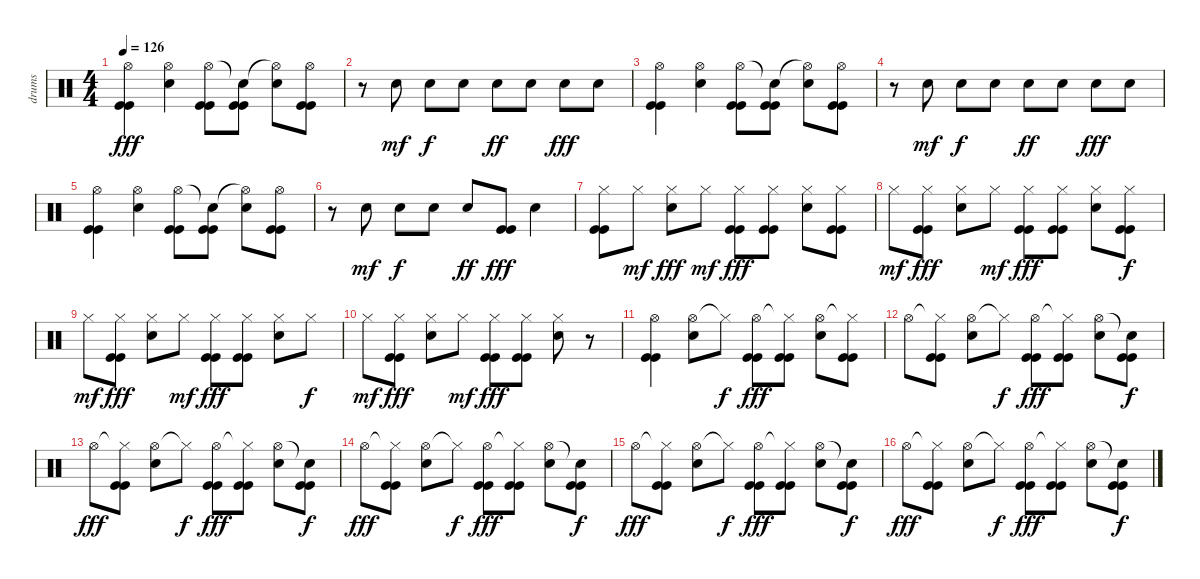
\track ("drums" "drums") {instrument percussion}
\staff {score}
\articulation defaults
\ts (4 4)
\tempo 126
\clef neutral
\ks c
("Hi-Hat (open)" "Kick (hit)" "Kick (hit)").4{dy fff} ("Hi-Hat (open)" "Electric Snare (hit)").4 ("Hi-Hat (open)" "Kick (hit)" "Kick (hit)").8 ("Snare (hit)"{t} "Kick (hit)" "Kick (hit)").8 ("Hi-Hat (open)"{t} "Electric Snare (hit)").8 ("Hi-Hat (open)" "Kick (hit)" "Kick (hit)").8 |
r.8 "Electric Snare (hit)".8{dy mf} "Electric Snare (hit)".8{dy f} "Electric Snare (hit)".8 "Electric Snare (hit)".8{dy ff} "Electric Snare (hit)".8 "Electric Snare (hit)".8{dy fff} "Electric Snare (hit)".8 |
("Hi-Hat (open)" "Kick (hit)" "Kick (hit)").4 ("Hi-Hat (open)" "Electric Snare (hit)").4 ("Hi-Hat (open)" "Kick (hit)" "Kick (hit)").8 ("Snare (hit)"{t} "Kick (hit)" "Kick (hit)").8 ("Hi-Hat (open)"{t} "Electric Snare (hit)").8 ("Hi-Hat (open)" "Kick (hit)" "Kick (hit)").8 |
r.8 "Electric Snare (hit)".8{dy mf} "Electric Snare (hit)".8{dy f} "Electric Snare (hit)".8 "Electric Snare (hit)".8{dy ff} "Electric Snare (hit)".8 "Electric Snare (hit)".8{dy fff} "Electric Snare (hit)".8 |
("Hi-Hat (open)" "Kick (hit)" "Kick (hit)").4 ("Hi-Hat (open)" "Electric Snare (hit)").4 ("Hi-Hat (open)" "Kick (hit)" "Kick (hit)").8 ("Snare (hit)"{t} "Kick (hit)" "Kick (hit)").8 ("Hi-Hat (open)"{t} "Electric Snare (hit)").8 ("Hi-Hat (open)" "Kick (hit)" "Kick (hit)").8 |
r.8 "Electric Snare (hit)".8{dy mf} "Electric Snare (hit)".8{dy f} "Electric Snare (hit)".8 "Electric Snare (hit)".8{dy ff} ("Kick (hit)" "Kick (hit)").8{dy fff} "Electric Snare (hit)".4 |
("Hi-Hat (closed)" "Kick (hit)" "Kick (hit)").8 "Hi-Hat (closed)".8{dy mf} ("Hi-Hat (closed)" "Electric Snare (hit)").8{dy fff} "Hi-Hat (closed)".8{dy mf} ("Hi-Hat (closed)" "Kick (hit)" "Kick (hit)").8{dy fff} ("Hi-Hat (closed)" "Kick (hit)" "Kick (hit)").8 ("Hi-Hat (closed)" "Electric Snare (hit)").8 ("Hi-Hat (closed)" "Kick (hit)" "Kick (hit)").8 |
"Hi-Hat (closed)".8{dy mf} ("Hi-Hat (closed)" "Kick (hit)" "Kick (hit)").8{dy fff} ("Hi-Hat (closed)" "Electric Snare (hit)").8 "Hi-Hat (closed)".8{dy mf} ("Hi-Hat (closed)" "Kick (hit)" "Kick (hit)").8{dy fff} ("Hi-Hat (closed)" "Kick (hit)" "Kick (hit)").8 ("Hi-Hat (closed)" "Electric Snare (hit)").8 ("Hi-Hat (closed)" "Kick (hit)" "Kick (hit)").8{dy f} |
"Hi-Hat (closed)".8{dy mf} ("Hi-Hat (closed)" "Kick (hit)" "Kick (hit)").8{dy fff} ("Hi-Hat (closed)" "Electric Snare (hit)").8 "Hi-Hat (closed)".8{dy mf} ("Hi-Hat (closed)" "Kick (hit)" "Kick (hit)").8{dy fff} ("Hi-Hat (closed)" "Kick (hit)" "Kick (hit)").8 ("Hi-Hat (closed)" "Electric Snare (hit)").8 "Hi-Hat (closed)".8{dy f} |
"Hi-Hat (closed)".8{dy mf} ("Hi-Hat (closed)" "Kick (hit)" "Kick (hit)").8{dy fff} ("Hi-Hat (closed)" "Electric Snare (hit)").8 "Hi-Hat (closed)".8{dy mf} ("Hi-Hat (closed)" "Kick (hit)" "Kick (hit)").8{dy fff} ("Hi-Hat (closed)" "Kick (hit)" "Kick (hit)").8 ("Hi-Hat (closed)" "Electric Snare (hit)").8 r.8 |
("Hi-Hat (open)" "Kick (hit)" "Kick (hit)").4 ("Hi-Hat (open)" "Electric Snare (hit)").8 "Hi-Hat (closed)"{t}.8{dy f} ("Hi-Hat (open)" "Kick (hit)" "Kick (hit)").8{dy fff} ("Hi-Hat (closed)"{t} "Kick (hit)" "Kick (hit)").8 ("Hi-Hat (open)" "Electric Snare (hit)").8 ("Hi-Hat (closed)"{t} "Kick (hit)" "Kick (hit)").8 |
"Hi-Hat (open)".8 ("Hi-Hat (closed)"{t} "Kick (hit)" "Kick (hit)").8 ("Hi-Hat (open)" "Electric Snare (hit)").8 "Hi-Hat (closed)"{t}.8{dy f} ("Hi-Hat (open)" "Kick (hit)" "Kick (hit)").8{dy fff} ("Hi-Hat (closed)"{t} "Kick (hit)" "Kick (hit)").8 ("Hi-Hat (open)" "Electric Snare (hit)").8 ("Snare (hit)"{t} "Kick (hit)" "Kick (hit)").8{dy f} |
"Hi-Hat (open)".8{dy fff} ("Hi-Hat (closed)"{t} "Kick (hit)" "Kick (hit)").8 ("Hi-Hat (open)" "Electric Snare (hit)").8 "Hi-Hat (closed)"{t}.8{dy f} ("Hi-Hat (open)" "Kick (hit)" "Kick (hit)").8{dy fff} ("Hi-Hat (closed)"{t} "Kick (hit)" "Kick (hit)").8 ("Hi-Hat (open)" "Electric Snare (hit)").8 ("Snare (hit)"{t} "Kick (hit)" "Kick (hit)").8{dy f} |
"Hi-Hat (open)".8{dy fff} ("Hi-Hat (closed)"{t} "Kick (hit)" "Kick (hit)").8 ("Hi-Hat (open)" "Electric Snare (hit)").8 "Hi-Hat (closed)"{t}.8{dy f} ("Hi-Hat (open)" "Kick (hit)" "Kick (hit)").8{dy fff} ("Hi-Hat (closed)"{t} "Kick (hit)" "Kick (hit)").8 ("Hi-Hat (open)" "Electric Snare (hit)").8 ("Snare (hit)"{t} "Kick (hit)" "Kick (hit)").8{dy f} |
"Hi-Hat (open)".8{dy fff} ("Hi-Hat (closed)"{t} "Kick (hit)" "Kick (hit)").8 ("Hi-Hat (open)" "Electric Snare (hit)").8 "Hi-Hat (closed)"{t}.8{dy f} ("Hi-Hat (open)" "Kick (hit)" "Kick (hit)").8{dy fff} ("Hi-Hat (closed)"{t} "Kick (hit)" "Kick (hit)").8 ("Hi-Hat (open)" "Electric Snare (hit)").8 ("Snare (hit)"{t} "Kick (hit)" "Kick (hit)").8{dy f} |
"Hi-Hat (open)".8{dy fff} ("Hi-Hat (closed)"{t} "Kick (hit)" "Kick (hit)").8 ("Hi-Hat (open)" "Electric Snare (hit)").8 "Hi-Hat (closed)"{t}.8{dy f} ("Hi-Hat (open)" "Kick (hit)" "Kick (hit)").8{dy fff} ("Hi-Hat (closed)"{t} "Kick (hit)" "Kick (hit)").8 ("Hi-Hat (open)" "Electric Snare (hit)").8 ("Snare (hit)"{t} "Kick (hit)" "Kick (hit)").8{dy f}
